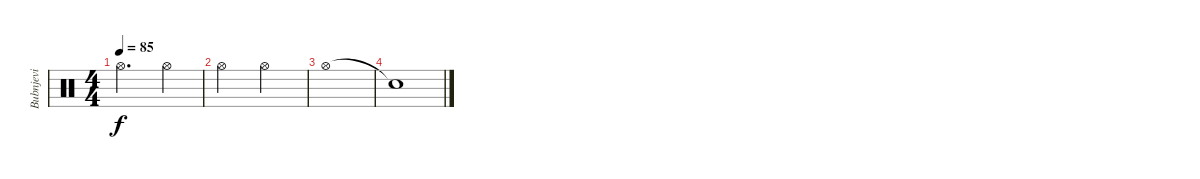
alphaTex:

\track ("Bubnjevi" "Bubnjevi") {instrument percussion}
\staff {score}
\articulation defaults
\ts (4 4)
\tempo 85
\clef neutral
\ks c "Hi-Hat (open)".2{d dy f} "Hi-Hat (open)".4
|
"Hi-Hat (open)".2 "Hi-Hat (open)".2 |
"Hi-Hat (open)".1 |
"Snare (hit)"{t}.1
